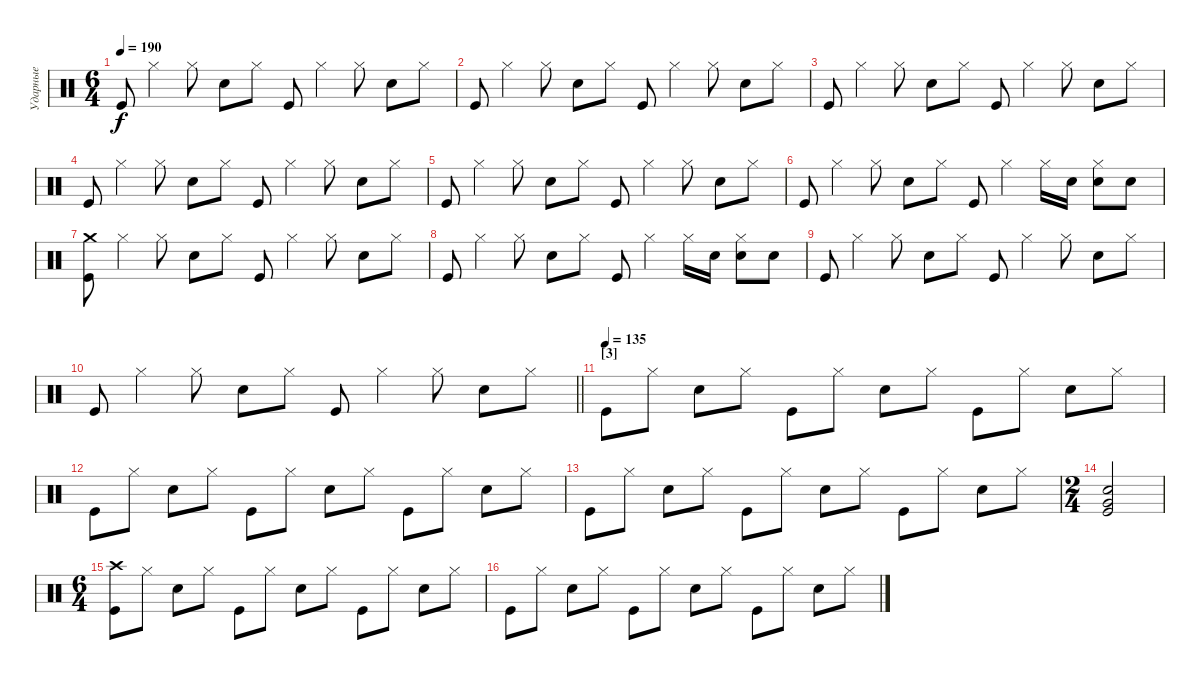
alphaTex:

\track ("Ударные" "Ударные") {instrument percussion}
\staff {score}
\articulation defaults
\ts (6 4)
\tempo 190
\clef neutral
\ks c "Kick (hit)".8{dy f} "Hi-Hat (closed)".4 "Hi-Hat (closed)".8 "Electric Snare (hit)".8 "Hi-Hat (closed)".8 "Kick (hit)".8 "Hi-Hat (closed)".4 "Hi-Hat (closed)".8 "Electric Snare (hit)".8 "Hi-Hat (closed)".8
|
"Kick (hit)".8 "Hi-Hat (closed)".4 "Hi-Hat (closed)".8 "Electric Snare (hit)".8 "Hi-Hat (closed)".8 "Kick (hit)".8 "Hi-Hat (closed)".4 "Hi-Hat (closed)".8 "Electric Snare (hit)".8 "Hi-Hat (closed)".8 |
"Kick (hit)".8 "Hi-Hat (closed)".4 "Hi-Hat (closed)".8 "Electric Snare (hit)".8 "Hi-Hat (closed)".8 "Kick (hit)".8 "Hi-Hat (closed)".4 "Hi-Hat (closed)".8 "Electric Snare (hit)".8 "Hi-Hat (closed)".8 |
"Kick (hit)".8 "Hi-Hat (closed)".4 "Hi-Hat (closed)".8 "Electric Snare (hit)".8 "Hi-Hat (closed)".8 "Kick (hit)".8 "Hi-Hat (closed)".4 "Hi-Hat (closed)".8 "Electric Snare (hit)".8 "Hi-Hat (closed)".8 |
"Kick (hit)".8 "Hi-Hat (closed)".4 "Hi-Hat (closed)".8 "Electric Snare (hit)".8 "Hi-Hat (closed)".8 "Kick (hit)".8 "Hi-Hat (closed)".4 "Hi-Hat (closed)".8 "Electric Snare (hit)".8 "Hi-Hat (closed)".8 |
"Kick (hit)".8 "Hi-Hat (closed)".4 "Hi-Hat (closed)".8 "Electric Snare (hit)".8 "Hi-Hat (closed)".8 "Kick (hit)".8 "Hi-Hat (closed)".4 "Hi-Hat (closed)".16 "Electric Snare (hit)".16 ("Hi-Hat (closed)" "Electric Snare (hit)").8 "Electric Snare (hit)".8 |
("Crash medium (hit)" "Kick (hit)").8 "Hi-Hat (closed)".4 "Hi-Hat (closed)".8 "Electric Snare (hit)".8 "Hi-Hat (closed)".8 "Kick (hit)".8 "Hi-Hat (closed)".4 "Hi-Hat (closed)".8 "Electric Snare (hit)".8 "Hi-Hat (closed)".8 |
"Kick (hit)".8 "Hi-Hat (closed)".4 "Hi-Hat (closed)".8 "Electric Snare (hit)".8 "Hi-Hat (closed)".8 "Kick (hit)".8 "Hi-Hat (closed)".4 "Hi-Hat (closed)".16 "Electric Snare (hit)".16 ("Hi-Hat (closed)" "Electric Snare (hit)").8 "Electric Snare (hit)".8 |
"Kick (hit)".8 "Hi-Hat (closed)".4 "Hi-Hat (closed)".8 "Electric Snare (hit)".8 "Hi-Hat (closed)".8 "Kick (hit)".8 "Hi-Hat (closed)".4 "Hi-Hat (closed)".8 "Electric Snare (hit)".8 "Hi-Hat (closed)".8 |
\barLineRight lightlight "Kick (hit)".8 "Hi-Hat (closed)".4 "Hi-Hat (closed)".8 "Electric Snare (hit)".8 "Hi-Hat (closed)".8 "Kick (hit)".8 "Hi-Hat (closed)".4 "Hi-Hat (closed)".8 "Electric Snare (hit)".8 "Hi-Hat (closed)".8
|
\section ("" "[3]")
\tempo (135)
"Kick (hit)".8 "Hi-Hat (closed)".8 "Electric Snare (hit)".8 "Hi-Hat (closed)".8 "Kick (hit)".8 "Hi-Hat (closed)".8 "Electric Snare (hit)".8 "Hi-Hat (closed)".8 "Kick (hit)".8 "Hi-Hat (closed)".8 "Electric Snare (hit)".8 "Hi-Hat (closed)".8 |
"Kick (hit)".8 "Hi-Hat (closed)".8 "Electric Snare (hit)".8 "Hi-Hat (closed)".8 "Kick (hit)".8 "Hi-Hat (closed)".8 "Electric Snare (hit)".8 "Hi-Hat (closed)".8 "Kick (hit)".8 "Hi-Hat (closed)".8 "Electric Snare (hit)".8 "Hi-Hat (closed)".8 |
"Kick (hit)".8 "Hi-Hat (closed)".8 "Electric Snare (hit)".8 "Hi-Hat (closed)".8 "Kick (hit)".8 "Hi-Hat (closed)".8 "Electric Snare (hit)".8 "Hi-Hat (closed)".8 "Kick (hit)".8 "Hi-Hat (closed)".8 "Electric Snare (hit)".8 "Hi-Hat (closed)".8 |
\ts (2 4)
("Electric Snare (hit)" "Kick (hit)" "Very Low Tom (hit)").2 |
\ts (6 4)
("Crash high (hit)" "Kick (hit)").8 "Hi-Hat (closed)".8 "Electric Snare (hit)".8 "Hi-Hat (closed)".8 "Kick (hit)".8 "Hi-Hat (closed)".8 "Electric Snare (hit)".8 "Hi-Hat (closed)".8 "Kick (hit)".8 "Hi-Hat (closed)".8 "Electric Snare (hit)".8 "Hi-Hat (closed)".8 |
"Kick (hit)".8 "Hi-Hat (closed)".8 "Electric Snare (hit)".8 "Hi-Hat (closed)".8 "Kick (hit)".8 "Hi-Hat (closed)".8 "Electric Snare (hit)".8 "Hi-Hat (closed)".8 "Kick (hit)".8 "Hi-Hat (closed)".8 "Electric Snare (hit)".8 "Hi-Hat (closed)".8
